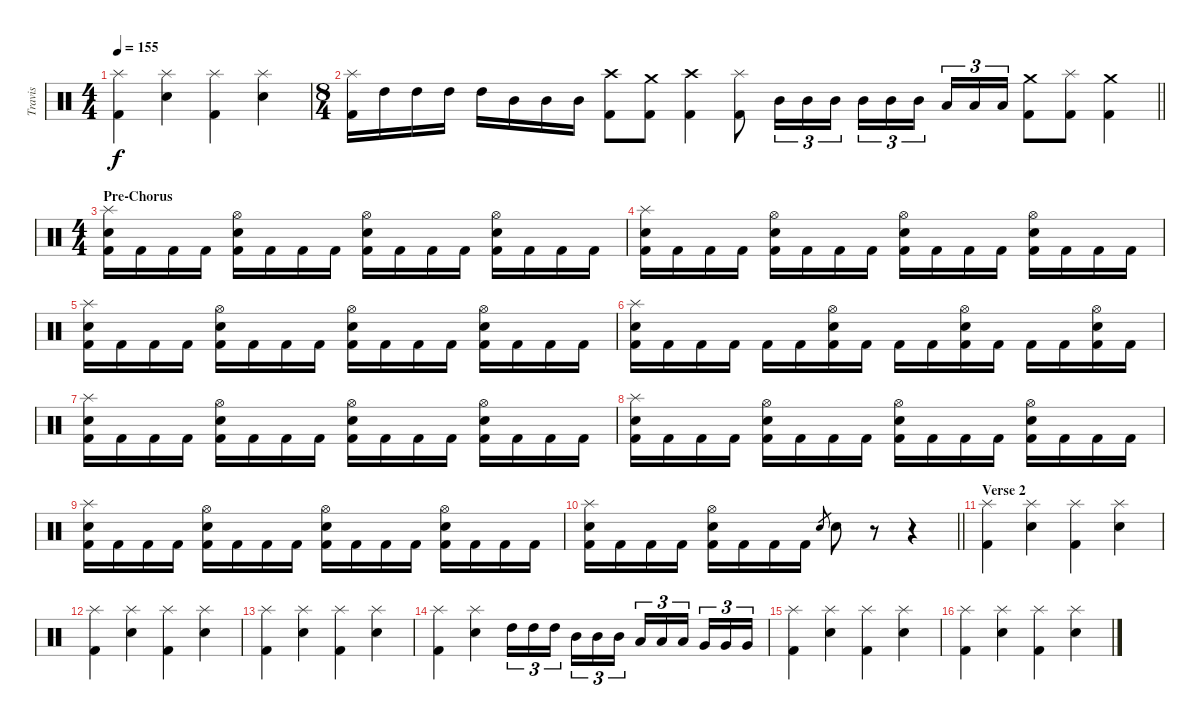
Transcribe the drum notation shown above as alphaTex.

\track ("Travis" "Travis") {instrument percussion}
\staff {score}
\articulation defaults
\ts (4 4)
\tempo 155
\clef neutral
\ks c
("Splash (hit)" "Kick (hit) 2").4{dy f} ("Splash (hit)" "Snare (hit) 2").4 ("Splash (hit)" "Kick (hit) 2").4 ("Splash (hit)" "Snare (hit) 2").4 |
\ts (8 4)
\barLineRight lightlight
("Splash (hit)" "Kick (hit) 2").16 "High Tom (hit)".16 "High Tom (hit)".16 "High Tom (hit)".16 "High Tom (hit)".16 "Mid Tom (hit)".16 "Mid Tom (hit)".16 "Mid Tom (hit)".16 ("Crash high (hit)" "Kick (hit) 2").8 ("Crash medium (hit)" "Kick (hit) 2").8 ("Crash high (hit)" "Kick (hit) 2").4 ("Splash (hit)" "Kick (hit) 2").8 "Mid Tom (hit)".16{tu (3 2)} "Mid Tom (hit)".16{tu (3 2)} "Mid Tom (hit)".16{tu (3 2)} "Mid Tom (hit)".16{tu (3 2)} "Mid Tom (hit)".16{tu (3 2)} "Mid Tom (hit)".16{tu (3 2)} "Low Tom (hit)".16{tu (3 2)} "Low Tom (hit)".16{tu (3 2)} "Low Tom (hit)".16{tu (3 2)} ("Crash medium (hit)" "Kick (hit) 2").8 ("Splash (hit)" "Kick (hit) 2").8 ("Crash medium (hit)" "Kick (hit) 2").4 |
\ts (4 4)
\section ("" "Pre-Chorus")
("Splash (hit)" "Snare (hit) 2" "Kick (hit) 2").16 "Kick (hit) 2".16 "Kick (hit) 2".16 "Kick (hit) 2".16 ("Hi-Hat (open)" "Snare (hit) 2" "Kick (hit) 2").16 "Kick (hit) 2".16 "Kick (hit) 2".16 "Kick (hit) 2".16 ("Hi-Hat (open)" "Snare (hit) 2" "Kick (hit) 2").16 "Kick (hit) 2".16 "Kick (hit) 2".16 "Kick (hit) 2".16 ("Hi-Hat (open)" "Snare (hit) 2" "Kick (hit) 2").16 "Kick (hit) 2".16 "Kick (hit) 2".16 "Kick (hit) 2".16 |
("Splash (hit)" "Snare (hit) 2" "Kick (hit) 2").16 "Kick (hit) 2".16 "Kick (hit) 2".16 "Kick (hit) 2".16 ("Hi-Hat (open)" "Snare (hit) 2" "Kick (hit) 2").16 "Kick (hit) 2".16 "Kick (hit) 2".16 "Kick (hit) 2".16 ("Hi-Hat (open)" "Snare (hit) 2" "Kick (hit) 2").16 "Kick (hit) 2".16 "Kick (hit) 2".16 "Kick (hit) 2".16 ("Hi-Hat (open)" "Snare (hit) 2" "Kick (hit) 2").16 "Kick (hit) 2".16 "Kick (hit) 2".16 "Kick (hit) 2".16 |
("Splash (hit)" "Snare (hit) 2" "Kick (hit) 2").16 "Kick (hit) 2".16 "Kick (hit) 2".16 "Kick (hit) 2".16 ("Hi-Hat (open)" "Snare (hit) 2" "Kick (hit) 2").16 "Kick (hit) 2".16 "Kick (hit) 2".16 "Kick (hit) 2".16 ("Hi-Hat (open)" "Snare (hit) 2" "Kick (hit) 2").16 "Kick (hit) 2".16 "Kick (hit) 2".16 "Kick (hit) 2".16 ("Hi-Hat (open)" "Snare (hit) 2" "Kick (hit) 2").16 "Kick (hit) 2".16 "Kick (hit) 2".16 "Kick (hit) 2".16 |
("Splash (hit)" "Snare (hit) 2" "Kick (hit) 2").16 "Kick (hit) 2".16 "Kick (hit) 2".16 "Kick (hit) 2".16 "Kick (hit) 2".16 "Kick (hit) 2".16 ("Hi-Hat (open)" "Snare (hit) 2" "Kick (hit) 2").16 "Kick (hit) 2".16 "Kick (hit) 2".16 "Kick (hit) 2".16 ("Hi-Hat (open)" "Snare (hit) 2" "Kick (hit) 2").16 "Kick (hit) 2".16 "Kick (hit) 2".16 "Kick (hit) 2".16 ("Hi-Hat (open)" "Snare (hit) 2" "Kick (hit) 2").16 "Kick (hit) 2".16 |
("Splash (hit)" "Snare (hit) 2" "Kick (hit) 2").16 "Kick (hit) 2".16 "Kick (hit) 2".16 "Kick (hit) 2".16 ("Hi-Hat (open)" "Snare (hit) 2" "Kick (hit) 2").16 "Kick (hit) 2".16 "Kick (hit) 2".16 "Kick (hit) 2".16 ("Hi-Hat (open)" "Snare (hit) 2" "Kick (hit) 2").16 "Kick (hit) 2".16 "Kick (hit) 2".16 "Kick (hit) 2".16 ("Hi-Hat (open)" "Snare (hit) 2" "Kick (hit) 2").16 "Kick (hit) 2".16 "Kick (hit) 2".16 "Kick (hit) 2".16 |
("Splash (hit)" "Snare (hit) 2" "Kick (hit) 2").16 "Kick (hit) 2".16 "Kick (hit) 2".16 "Kick (hit) 2".16 ("Hi-Hat (open)" "Snare (hit) 2" "Kick (hit) 2").16 "Kick (hit) 2".16 "Kick (hit) 2".16 "Kick (hit) 2".16 ("Hi-Hat (open)" "Snare (hit) 2" "Kick (hit) 2").16 "Kick (hit) 2".16 "Kick (hit) 2".16 "Kick (hit) 2".16 ("Hi-Hat (open)" "Snare (hit) 2" "Kick (hit) 2").16 "Kick (hit) 2".16 "Kick (hit) 2".16 "Kick (hit) 2".16 |
("Splash (hit)" "Snare (hit) 2" "Kick (hit) 2").16 "Kick (hit) 2".16 "Kick (hit) 2".16 "Kick (hit) 2".16 ("Hi-Hat (open)" "Snare (hit) 2" "Kick (hit) 2").16 "Kick (hit) 2".16 "Kick (hit) 2".16 "Kick (hit) 2".16 ("Hi-Hat (open)" "Snare (hit) 2" "Kick (hit) 2").16 "Kick (hit) 2".16 "Kick (hit) 2".16 "Kick (hit) 2".16 ("Hi-Hat (open)" "Snare (hit) 2" "Kick (hit) 2").16 "Kick (hit) 2".16 "Kick (hit) 2".16 "Kick (hit) 2".16 |
\barLineRight lightlight
("Splash (hit)" "Snare (hit) 2" "Kick (hit) 2").16 "Kick (hit) 2".16 "Kick (hit) 2".16 "Kick (hit) 2".16 ("Hi-Hat (open)" "Snare (hit) 2" "Kick (hit) 2").16 "Kick (hit) 2".16 "Kick (hit) 2".16 "Kick (hit) 2".16 "Snare (hit) 2".8{gr} "Snare (hit) 2".8 r.8 r.4 |
\section ("" "Verse 2")
("Splash (hit)" "Kick (hit) 2").4 ("Splash (hit)" "Snare (hit) 2").4 ("Splash (hit)" "Kick (hit) 2").4 ("Splash (hit)" "Snare (hit) 2").4 |
("Splash (hit)" "Kick (hit) 2").4 ("Splash (hit)" "Snare (hit) 2").4 ("Splash (hit)" "Kick (hit) 2").4 ("Splash (hit)" "Snare (hit) 2").4 |
("Splash (hit)" "Kick (hit) 2").4 ("Splash (hit)" "Snare (hit) 2").4 ("Splash (hit)" "Kick (hit) 2").4 ("Splash (hit)" "Snare (hit) 2").4 |
("Splash (hit)" "Kick (hit) 2").4 ("Splash (hit)" "Snare (hit) 2").4 "High Tom (hit)".16{tu (3 2)} "High Tom (hit)".16{tu (3 2)} "High Tom (hit)".16{tu (3 2)} "Mid Tom (hit)".16{tu (3 2)} "Mid Tom (hit)".16{tu (3 2)} "Mid Tom (hit)".16{tu (3 2)} "Low Tom (hit)".16{tu (3 2)} "Low Tom (hit)".16{tu (3 2)} "Low Tom (hit)".16{tu (3 2)} "Very Low Tom (hit)".16{tu (3 2)} "Very Low Tom (hit)".16{tu (3 2)} "Very Low Tom (hit)".16{tu (3 2)} |
("Splash (hit)" "Kick (hit) 2").4 ("Splash (hit)" "Snare (hit) 2").4 ("Splash (hit)" "Kick (hit) 2").4 ("Splash (hit)" "Snare (hit) 2").4 |
("Splash (hit)" "Kick (hit) 2").4 ("Splash (hit)" "Snare (hit) 2").4 ("Splash (hit)" "Kick (hit) 2").4 ("Splash (hit)" "Snare (hit) 2").4
